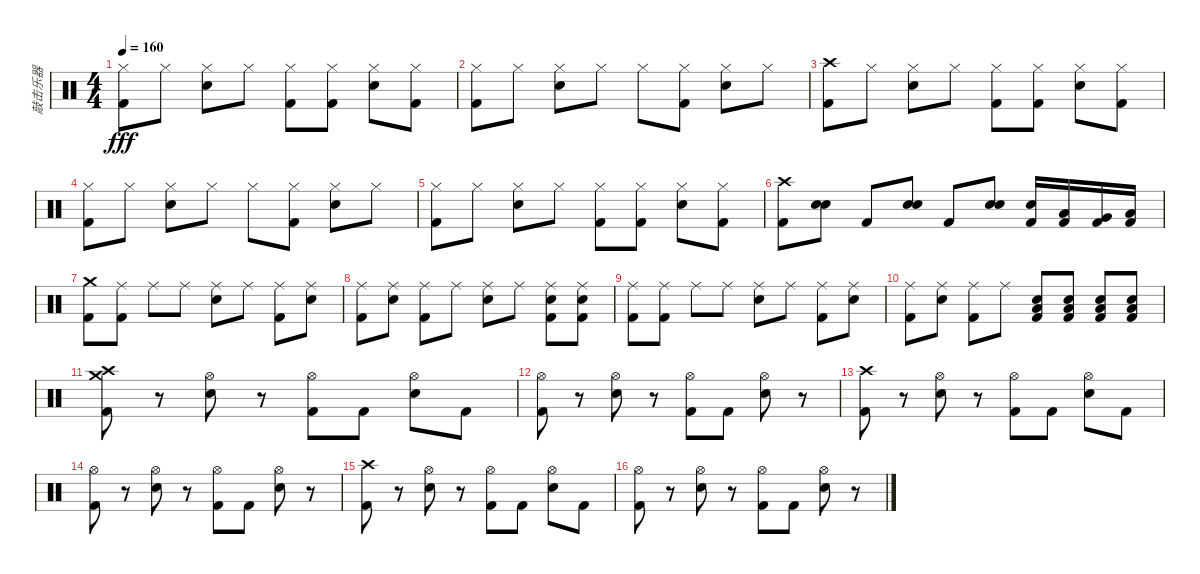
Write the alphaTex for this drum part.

\track ("敲击乐器" "敲击乐器") {instrument percussion}
\staff {score}
\articulation defaults
\ts (4 4)
\tempo 160
\clef neutral
\ks c
("Hi-Hat (closed)" "Kick (hit) 2").8{dy fff} "Hi-Hat (closed)".8 ("Hi-Hat (closed)" "Electric Snare (hit)").8 "Hi-Hat (closed)".8 ("Hi-Hat (closed)" "Kick (hit) 2").8 ("Hi-Hat (closed)" "Kick (hit) 2").8 ("Hi-Hat (closed)" "Electric Snare (hit)").8 ("Hi-Hat (closed)" "Kick (hit) 2").8 |
("Hi-Hat (closed)" "Kick (hit) 2").8 "Hi-Hat (closed)".8 ("Hi-Hat (closed)" "Electric Snare (hit)").8 "Hi-Hat (closed)".8 "Hi-Hat (closed)".8 ("Hi-Hat (closed)" "Kick (hit) 2").8 ("Hi-Hat (closed)" "Electric Snare (hit)").8 "Hi-Hat (closed)".8 |
("Crash high (hit)" "Kick (hit) 2").8 "Hi-Hat (closed)".8 ("Hi-Hat (closed)" "Electric Snare (hit)").8 "Hi-Hat (closed)".8 ("Hi-Hat (closed)" "Kick (hit) 2").8 ("Hi-Hat (closed)" "Kick (hit) 2").8 ("Hi-Hat (closed)" "Electric Snare (hit)").8 ("Hi-Hat (closed)" "Kick (hit) 2").8 |
("Hi-Hat (closed)" "Kick (hit) 2").8 "Hi-Hat (closed)".8 ("Hi-Hat (closed)" "Electric Snare (hit)").8 "Hi-Hat (closed)".8 "Hi-Hat (closed)".8 ("Hi-Hat (closed)" "Kick (hit) 2").8 ("Hi-Hat (closed)" "Electric Snare (hit)").8 "Hi-Hat (closed)".8 |
("Hi-Hat (closed)" "Kick (hit) 2").8 "Hi-Hat (closed)".8 ("Hi-Hat (closed)" "Electric Snare (hit)").8 "Hi-Hat (closed)".8 ("Hi-Hat (closed)" "Kick (hit) 2").8 ("Hi-Hat (closed)" "Kick (hit) 2").8 ("Hi-Hat (closed)" "Electric Snare (hit)").8 ("Hi-Hat (closed)" "Kick (hit) 2").8 |
("Crash high (hit)" "Kick (hit) 2").8 ("Snare (hit) 2" "Electric Snare (hit)").8 "Kick (hit) 2".8 ("Snare (hit) 2" "Electric Snare (hit)").8 "Kick (hit) 2".8 ("Snare (hit) 2" "Electric Snare (hit)").8 ("Electric Snare (hit)" "Kick (hit) 2").16 ("Low Tom (hit)" "Kick (hit) 2").16 ("Very Low Tom (hit)" "Kick (hit) 2").16 ("Low Floor Tom (hit)" "Kick (hit) 2").16 |
("Crash medium (hit)" "Kick (hit) 2").8 ("Ride (middle)" "Kick (hit) 2").8 "Ride (middle)".8 "Ride (middle)".8 ("Ride (middle)" "Electric Snare (hit)").8 "Ride (middle)".8 ("Ride (middle)" "Kick (hit) 2").8 ("Ride (middle)" "Electric Snare (hit)").8 |
("Ride (middle)" "Kick (hit) 2").8 ("Ride (middle)" "Electric Snare (hit)").8 ("Ride (middle)" "Kick (hit) 2").8 "Ride (middle)".8 ("Ride (middle)" "Electric Snare (hit)").8 "Ride (middle)".8 ("Ride (middle)" "Electric Snare (hit)" "Kick (hit) 2").8 ("Ride (middle)" "Electric Snare (hit)" "Kick (hit) 2").8 |
("Ride (middle)" "Kick (hit) 2").8 ("Ride (middle)" "Kick (hit) 2").8 "Ride (middle)".8 "Ride (middle)".8 ("Ride (middle)" "Electric Snare (hit)").8 "Ride (middle)".8 ("Ride (middle)" "Kick (hit) 2").8 ("Ride (middle)" "Electric Snare (hit)").8 |
("Ride (middle)" "Kick (hit) 2").8 ("Ride (middle)" "Electric Snare (hit)").8 ("Ride (middle)" "Kick (hit) 2").8 "Ride (middle)".8 ("Low Floor Tom (hit)" "Electric Snare (hit)" "Kick (hit) 2").8 ("Low Floor Tom (hit)" "Electric Snare (hit)" "Kick (hit) 2").8 ("Low Floor Tom (hit)" "Electric Snare (hit)" "Kick (hit) 2").8 ("Low Floor Tom (hit)" "Electric Snare (hit)" "Kick (hit) 2").8 |
("Crash high (hit)" "Crash medium (hit)" "Kick (hit) 2").8 r.8 ("Hi-Hat (open)" "Electric Snare (hit)").8 r.8 ("Hi-Hat (open)" "Kick (hit) 2").8 "Kick (hit) 2".8 ("Hi-Hat (open)" "Electric Snare (hit)").8 "Kick (hit) 2".8 |
("Hi-Hat (open)" "Kick (hit) 2").8 r.8 ("Hi-Hat (open)" "Electric Snare (hit)").8 r.8 ("Hi-Hat (open)" "Kick (hit) 2").8 "Kick (hit) 2".8 ("Hi-Hat (open)" "Electric Snare (hit)").8 r.8 |
("Crash high (hit)" "Kick (hit) 2").8 r.8 ("Hi-Hat (open)" "Electric Snare (hit)").8 r.8 ("Hi-Hat (open)" "Kick (hit) 2").8 "Kick (hit) 2".8 ("Hi-Hat (open)" "Electric Snare (hit)").8 "Kick (hit) 2".8 |
("Hi-Hat (open)" "Kick (hit) 2").8 r.8 ("Hi-Hat (open)" "Electric Snare (hit)").8 r.8 ("Hi-Hat (open)" "Kick (hit) 2").8 "Kick (hit) 2".8 ("Hi-Hat (open)" "Electric Snare (hit)").8 r.8 |
("Crash high (hit)" "Kick (hit) 2").8 r.8 ("Hi-Hat (open)" "Electric Snare (hit)").8 r.8 ("Hi-Hat (open)" "Kick (hit) 2").8 "Kick (hit) 2".8 ("Hi-Hat (open)" "Electric Snare (hit)").8 "Kick (hit) 2".8 |
("Hi-Hat (open)" "Kick (hit) 2").8 r.8 ("Hi-Hat (open)" "Electric Snare (hit)").8 r.8 ("Hi-Hat (open)" "Kick (hit) 2").8 "Kick (hit) 2".8 ("Hi-Hat (open)" "Electric Snare (hit)").8 r.8
